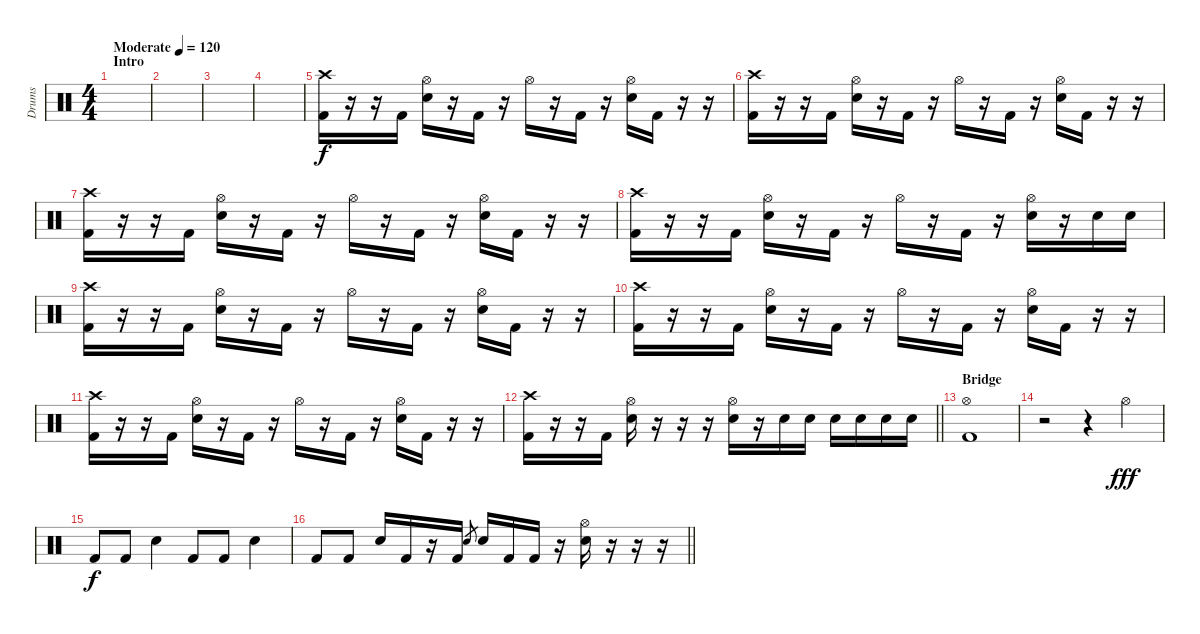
\track ("Drums" "Drums") {instrument percussion}
\staff {score}
\articulation defaults
\ts (4 4)
\section ("" "Intro")
\tempo (120 "Moderate")
\clef neutral
\ks c
|
|
|
|
("Crash high (hit)" "Kick (hit) 2").16 r.16 r.16 "Kick (hit) 2".16 ("Hi-Hat (open)" "Snare (hit) 2").16 r.16 "Kick (hit) 2".16 r.16 "Hi-Hat (open)".16 r.16 "Kick (hit) 2".16 r.16 ("Hi-Hat (open)" "Snare (hit) 2").16 "Kick (hit) 2".16 r.16 r.16 |
("Crash high (hit)" "Kick (hit) 2").16 r.16 r.16 "Kick (hit) 2".16 ("Hi-Hat (open)" "Snare (hit) 2").16 r.16 "Kick (hit) 2".16 r.16 "Hi-Hat (open)".16 r.16 "Kick (hit) 2".16 r.16 ("Hi-Hat (open)" "Snare (hit) 2").16 "Kick (hit) 2".16 r.16 r.16 |
("Crash high (hit)" "Kick (hit) 2").16 r.16 r.16 "Kick (hit) 2".16 ("Hi-Hat (open)" "Snare (hit) 2").16 r.16 "Kick (hit) 2".16 r.16 "Hi-Hat (open)".16 r.16 "Kick (hit) 2".16 r.16 ("Hi-Hat (open)" "Snare (hit) 2").16 "Kick (hit) 2".16 r.16 r.16 |
("Crash high (hit)" "Kick (hit) 2").16 r.16 r.16 "Kick (hit) 2".16 ("Hi-Hat (open)" "Snare (hit) 2").16 r.16 "Kick (hit) 2".16 r.16 "Hi-Hat (open)".16 r.16 "Kick (hit) 2".16 r.16 ("Hi-Hat (open)" "Snare (hit) 2").16 r.16 "Snare (hit) 2".16 "Snare (hit) 2".16 |
("Crash high (hit)" "Kick (hit) 2").16 r.16 r.16 "Kick (hit) 2".16 ("Hi-Hat (open)" "Snare (hit) 2").16 r.16 "Kick (hit) 2".16 r.16 "Hi-Hat (open)".16 r.16 "Kick (hit) 2".16 r.16 ("Hi-Hat (open)" "Snare (hit) 2").16 "Kick (hit) 2".16 r.16 r.16 |
("Crash high (hit)" "Kick (hit) 2").16 r.16 r.16 "Kick (hit) 2".16 ("Hi-Hat (open)" "Snare (hit) 2").16 r.16 "Kick (hit) 2".16 r.16 "Hi-Hat (open)".16 r.16 "Kick (hit) 2".16 r.16 ("Hi-Hat (open)" "Snare (hit) 2").16 "Kick (hit) 2".16 r.16 r.16 |
("Crash high (hit)" "Kick (hit) 2").16 r.16 r.16 "Kick (hit) 2".16 ("Hi-Hat (open)" "Snare (hit) 2").16 r.16 "Kick (hit) 2".16 r.16 "Hi-Hat (open)".16 r.16 "Kick (hit) 2".16 r.16 ("Hi-Hat (open)" "Snare (hit) 2").16 "Kick (hit) 2".16 r.16 r.16 |
\barLineRight lightlight
("Crash high (hit)" "Kick (hit) 2").16 r.16 r.16 "Kick (hit) 2".16 ("Hi-Hat (open)" "Snare (hit) 2").16 r.16 r.16 r.16 ("Hi-Hat (open)" "Snare (hit) 2").16 r.16 "Snare (hit) 2".16 "Snare (hit) 2".16 "Snare (hit) 2".16 "Snare (hit) 2".16 "Snare (hit) 2".16 "Snare (hit) 2".16 |
\section ("" "Bridge")
("Hi-Hat (open)" "Kick (hit) 2").1 |
r.2 r.4 "Hi-Hat (open)".4{dy fff} |
"Kick (hit) 2".8{dy f} "Kick (hit) 2".8 "Snare (hit) 2".4 "Kick (hit) 2".8 "Kick (hit) 2".8 "Snare (hit) 2".4 |
\barLineRight lightlight "Kick (hit) 2".8 "Kick (hit) 2".8 "Snare (hit) 2".16 "Kick (hit) 2".16
r.16 "Kick (hit) 2".16 "Snare (hit) 2".8{gr} "Snare (hit) 2".16 "Kick (hit) 2".16 "Kick (hit) 2".16 r.16 ("Hi-Hat (open)" "Snare (hit) 2").16 r.16 r.16 r.16
